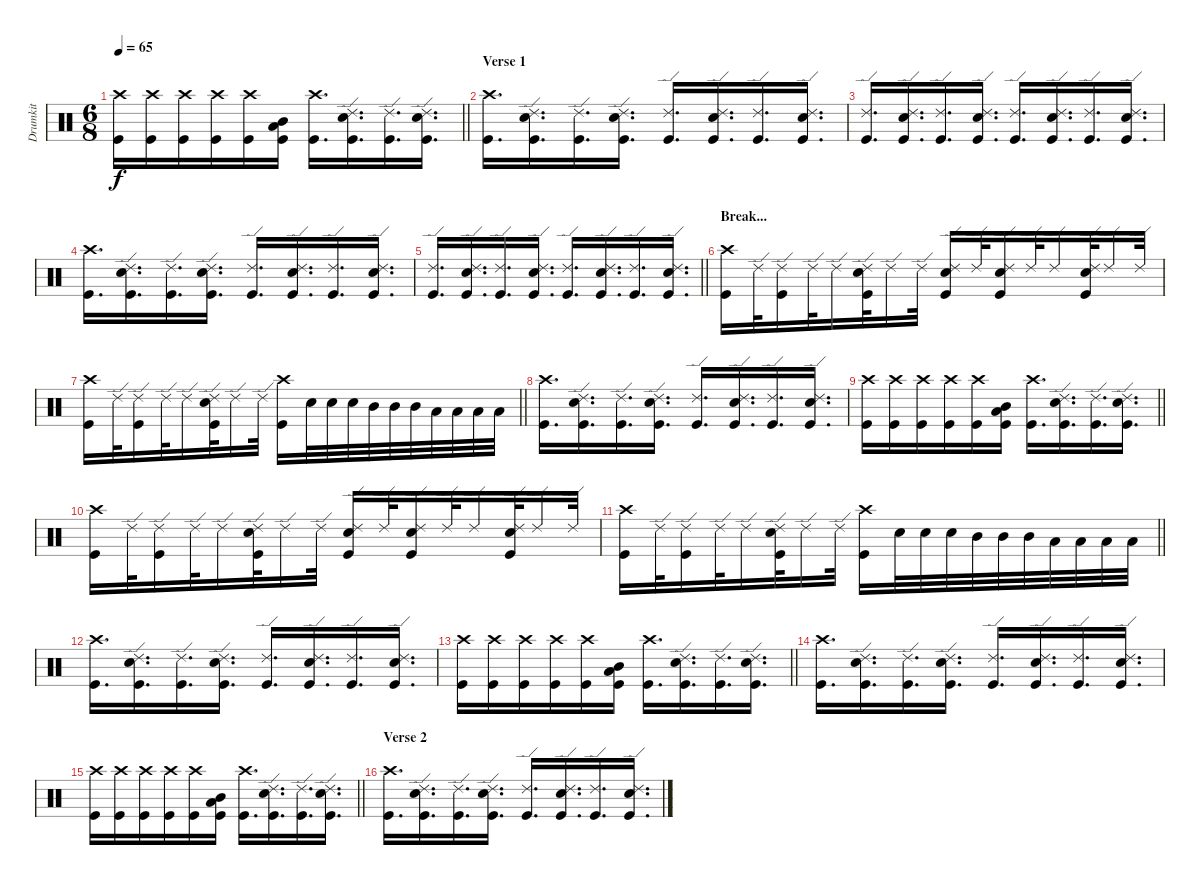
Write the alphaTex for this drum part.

\track ("Drumkit" "Drumkit") {instrument percussion}
\staff {score}
\articulation defaults
\ts (6 8)
\tempo 65
\clef neutral
\barLineRight lightlight
\ks c
("Kick (hit)" "Crash high (hit)").16{dy f} ("Kick (hit)" "Crash high (hit)").16 ("Kick (hit)" "Crash high (hit)").16 ("Kick (hit)" "Crash high (hit)").16 ("Kick (hit)" "Crash high (hit)").16 ("Kick (hit)" "Mid Tom (hit)" "Low Floor Tom (hit)").16 ("Kick (hit)" "Crash high (hit)").16{d} ("Kick (hit)" "Snare (hit) 2" "Ride (edge) 2").16{d} ("Kick (hit)" "Ride (edge) 2").16{d} ("Kick (hit)" "Snare (hit) 2" "Ride (edge) 2").16{d} |
\section ("" "Verse 1")
("Kick (hit)" "Crash high (hit)").16{d} ("Kick (hit)" "Snare (hit) 2" "Ride (edge) 2").16{d} ("Kick (hit)" "Ride (edge) 2").16{d} ("Kick (hit)" "Snare (hit) 2" "Ride (edge) 2").16{d} ("Kick (hit)" "Ride (edge) 2").16{d} ("Kick (hit)" "Snare (hit) 2" "Ride (edge) 2").16{d} ("Kick (hit)" "Ride (edge) 2").16{d} ("Kick (hit)" "Snare (hit) 2" "Ride (edge) 2").16{d} |
("Kick (hit)" "Ride (edge) 2").16{d} ("Kick (hit)" "Snare (hit) 2" "Ride (edge) 2").16{d} ("Kick (hit)" "Ride (edge) 2").16{d} ("Kick (hit)" "Snare (hit) 2" "Ride (edge) 2").16{d} ("Kick (hit)" "Ride (edge) 2").16{d} ("Kick (hit)" "Snare (hit) 2" "Ride (edge) 2").16{d} ("Kick (hit)" "Ride (edge) 2").16{d} ("Kick (hit)" "Snare (hit) 2" "Ride (edge) 2").16{d} |
("Kick (hit)" "Crash high (hit)").16{d} ("Kick (hit)" "Snare (hit) 2" "Ride (edge) 2").16{d} ("Kick (hit)" "Ride (edge) 2").16{d} ("Kick (hit)" "Snare (hit) 2" "Ride (edge) 2").16{d} ("Kick (hit)" "Ride (edge) 2").16{d} ("Kick (hit)" "Snare (hit) 2" "Ride (edge) 2").16{d} ("Kick (hit)" "Ride (edge) 2").16{d} ("Kick (hit)" "Snare (hit) 2" "Ride (edge) 2").16{d} |
\barLineRight lightlight
("Kick (hit)" "Ride (edge) 2").16{d} ("Kick (hit)" "Snare (hit) 2" "Ride (edge) 2").16{d} ("Kick (hit)" "Ride (edge) 2").16{d} ("Kick (hit)" "Snare (hit) 2" "Ride (edge) 2").16{d} ("Kick (hit)" "Ride (edge) 2").16{d} ("Kick (hit)" "Snare (hit) 2" "Ride (edge) 2").16{d} ("Kick (hit)" "Ride (edge) 2").16{d} ("Kick (hit)" "Snare (hit) 2" "Ride (edge) 2").16{d} |
\section ("" "Break...")
("Kick (hit)" "Crash high (hit)").16 "Ride (edge) 2".32 ("Kick (hit)" "Ride (edge) 2").16 "Ride (edge) 2".32 "Ride (edge) 2".16 ("Kick (hit)" "Snare (hit) 2" "Ride (edge) 2").32 "Ride (edge) 2".16 "Ride (edge) 2".32 ("Kick (hit)" "Snare (hit) 2" "Ride (edge) 2").16 "Ride (edge) 2".32 ("Kick (hit)" "Snare (hit) 2" "Ride (edge) 2").16 "Ride (edge) 2".32 "Ride (edge) 2".16 ("Kick (hit)" "Snare (hit) 2" "Ride (edge) 2").32 "Ride (edge) 2".16 "Ride (edge) 2".32 |
\barLineRight lightlight
("Kick (hit)" "Crash high (hit)").16 "Ride (edge) 2".32 ("Kick (hit)" "Ride (edge) 2").16 "Ride (edge) 2".32 "Ride (edge) 2".16 ("Kick (hit)" "Snare (hit) 2" "Ride (edge) 2").32 "Ride (edge) 2".16 "Ride (edge) 2".32 ("Kick (hit)" "Crash high (hit)").16 "Snare (hit) 2".32 "Snare (hit) 2".32 "Snare (hit) 2".32 "Mid Tom (hit)".32 "Mid Tom (hit)".32 "Mid Tom (hit)".32 "Low Tom (hit)".32 "Low Tom (hit)".32 "Low Tom (hit)".32 "Low Tom (hit)".32 |
("Kick (hit)" "Crash high (hit)").16{d} ("Kick (hit)" "Snare (hit) 2" "Ride (edge) 2").16{d} ("Kick (hit)" "Ride (edge) 2").16{d} ("Kick (hit)" "Snare (hit) 2" "Ride (edge) 2").16{d} ("Kick (hit)" "Ride (edge) 2").16{d} ("Kick (hit)" "Snare (hit) 2" "Ride (edge) 2").16{d} ("Kick (hit)" "Ride (edge) 2").16{d} ("Kick (hit)" "Snare (hit) 2" "Ride (edge) 2").16{d} |
\barLineRight lightlight
("Kick (hit)" "Crash high (hit)").16 ("Kick (hit)" "Crash high (hit)").16 ("Kick (hit)" "Crash high (hit)").16 ("Kick (hit)" "Crash high (hit)").16 ("Kick (hit)" "Crash high (hit)").16 ("Kick (hit)" "Mid Tom (hit)" "Low Floor Tom (hit)").16 ("Kick (hit)" "Crash high (hit)").16{d} ("Kick (hit)" "Snare (hit) 2" "Ride (edge) 2").16{d} ("Kick (hit)" "Ride (edge) 2").16{d} ("Kick (hit)" "Snare (hit) 2" "Ride (edge) 2").16{d} |
("Kick (hit)" "Crash high (hit)").16 "Ride (edge) 2".32 ("Kick (hit)" "Ride (edge) 2").16 "Ride (edge) 2".32 "Ride (edge) 2".16 ("Kick (hit)" "Snare (hit) 2" "Ride (edge) 2").32 "Ride (edge) 2".16 "Ride (edge) 2".32 ("Kick (hit)" "Snare (hit) 2" "Ride (edge) 2").16 "Ride (edge) 2".32 ("Kick (hit)" "Snare (hit) 2" "Ride (edge) 2").16 "Ride (edge) 2".32 "Ride (edge) 2".16 ("Kick (hit)" "Snare (hit) 2" "Ride (edge) 2").32 "Ride (edge) 2".16 "Ride (edge) 2".32 |
\barLineRight lightlight
("Kick (hit)" "Crash high (hit)").16 "Ride (edge) 2".32 ("Kick (hit)" "Ride (edge) 2").16 "Ride (edge) 2".32 "Ride (edge) 2".16 ("Kick (hit)" "Snare (hit) 2" "Ride (edge) 2").32 "Ride (edge) 2".16 "Ride (edge) 2".32 ("Kick (hit)" "Crash high (hit)").16 "Snare (hit) 2".32 "Snare (hit) 2".32 "Snare (hit) 2".32 "Mid Tom (hit)".32 "Mid Tom (hit)".32 "Mid Tom (hit)".32 "Low Tom (hit)".32 "Low Tom (hit)".32 "Low Tom (hit)".32 "Low Tom (hit)".32 |
("Kick (hit)" "Crash high (hit)").16{d} ("Kick (hit)" "Snare (hit) 2" "Ride (edge) 2").16{d} ("Kick (hit)" "Ride (edge) 2").16{d} ("Kick (hit)" "Snare (hit) 2" "Ride (edge) 2").16{d} ("Kick (hit)" "Ride (edge) 2").16{d} ("Kick (hit)" "Snare (hit) 2" "Ride (edge) 2").16{d} ("Kick (hit)" "Ride (edge) 2").16{d} ("Kick (hit)" "Snare (hit) 2" "Ride (edge) 2").16{d} |
\barLineRight lightlight
("Kick (hit)" "Crash high (hit)").16 ("Kick (hit)" "Crash high (hit)").16 ("Kick (hit)" "Crash high (hit)").16 ("Kick (hit)" "Crash high (hit)").16 ("Kick (hit)" "Crash high (hit)").16 ("Kick (hit)" "Mid Tom (hit)" "Low Floor Tom (hit)").16 ("Kick (hit)" "Crash high (hit)").16{d} ("Kick (hit)" "Snare (hit) 2" "Ride (edge) 2").16{d} ("Kick (hit)" "Ride (edge) 2").16{d} ("Kick (hit)" "Snare (hit) 2" "Ride (edge) 2").16{d} |
("Kick (hit)" "Crash high (hit)").16{d} ("Kick (hit)" "Snare (hit) 2" "Ride (edge) 2").16{d} ("Kick (hit)" "Ride (edge) 2").16{d} ("Kick (hit)" "Snare (hit) 2" "Ride (edge) 2").16{d} ("Kick (hit)" "Ride (edge) 2").16{d} ("Kick (hit)" "Snare (hit) 2" "Ride (edge) 2").16{d} ("Kick (hit)" "Ride (edge) 2").16{d} ("Kick (hit)" "Snare (hit) 2" "Ride (edge) 2").16{d} |
\barLineRight lightlight
("Kick (hit)" "Crash high (hit)").16 ("Kick (hit)" "Crash high (hit)").16 ("Kick (hit)" "Crash high (hit)").16 ("Kick (hit)" "Crash high (hit)").16 ("Kick (hit)" "Crash high (hit)").16 ("Kick (hit)" "Mid Tom (hit)" "Low Floor Tom (hit)").16 ("Kick (hit)" "Crash high (hit)").16{d} ("Kick (hit)" "Snare (hit) 2" "Ride (edge) 2").16{d} ("Kick (hit)" "Ride (edge) 2").16{d} ("Kick (hit)" "Snare (hit) 2" "Ride (edge) 2").16{d} |
\section ("" "Verse 2")
("Kick (hit)" "Crash high (hit)").16{d} ("Kick (hit)" "Snare (hit) 2" "Ride (edge) 2").16{d} ("Kick (hit)" "Ride (edge) 2").16{d} ("Kick (hit)" "Snare (hit) 2" "Ride (edge) 2").16{d} ("Kick (hit)" "Ride (edge) 2").16{d} ("Kick (hit)" "Snare (hit) 2" "Ride (edge) 2").16{d} ("Kick (hit)" "Ride (edge) 2").16{d} ("Kick (hit)" "Snare (hit) 2" "Ride (edge) 2").16{d}
